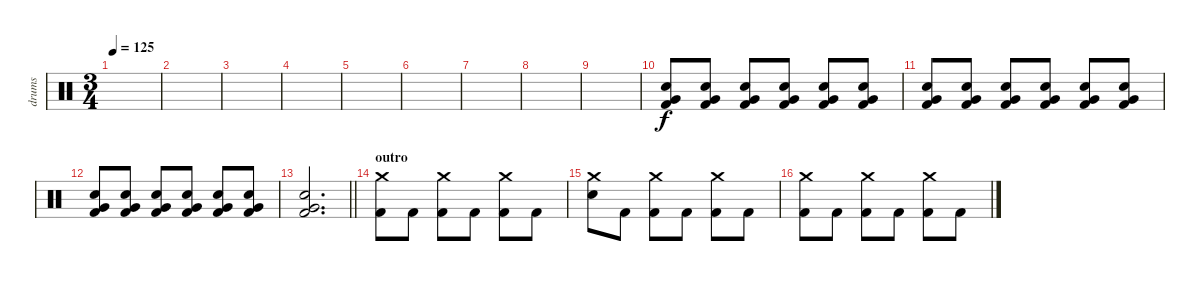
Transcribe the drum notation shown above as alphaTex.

\track ("drums" "drums") {instrument percussion}
\staff {score}
\articulation defaults
\ts (3 4)
\tempo 125
\clef neutral
\ks c
|
|
|
|
|
|
|
|
|
("Very Low Tom (hit)" "Electric Snare (hit)" "Kick (hit) 2").8{volume 5} ("Very Low Tom (hit)" "Electric Snare (hit)" "Kick (hit) 2").8{volume 16} ("Very Low Tom (hit)" "Electric Snare (hit)" "Kick (hit) 2").8 ("Very Low Tom (hit)" "Electric Snare (hit)" "Kick (hit) 2").8 ("Very Low Tom (hit)" "Electric Snare (hit)" "Kick (hit) 2").8 ("Very Low Tom (hit)" "Electric Snare (hit)" "Kick (hit) 2").8 |
("Very Low Tom (hit)" "Electric Snare (hit)" "Kick (hit) 2").8 ("Very Low Tom (hit)" "Electric Snare (hit)" "Kick (hit) 2").8 ("Very Low Tom (hit)" "Electric Snare (hit)" "Kick (hit) 2").8 ("Very Low Tom (hit)" "Electric Snare (hit)" "Kick (hit) 2").8 ("Very Low Tom (hit)" "Electric Snare (hit)" "Kick (hit) 2").8 ("Very Low Tom (hit)" "Electric Snare (hit)" "Kick (hit) 2").8 |
("Very Low Tom (hit)" "Electric Snare (hit)" "Kick (hit) 2").8 ("Very Low Tom (hit)" "Electric Snare (hit)" "Kick (hit) 2").8 ("Very Low Tom (hit)" "Electric Snare (hit)" "Kick (hit) 2").8 ("Very Low Tom (hit)" "Electric Snare (hit)" "Kick (hit) 2").8 ("Very Low Tom (hit)" "Electric Snare (hit)" "Kick (hit) 2").8 ("Very Low Tom (hit)" "Electric Snare (hit)" "Kick (hit) 2").8 |
\barLineRight lightlight
("Very Low Tom (hit)" "Electric Snare (hit)" "Kick (hit) 2").2{d} |
\section ("" "outro")
("Crash medium (hit)" "Kick (hit) 2").8 "Kick (hit) 2".8 ("Crash medium (hit)" "Kick (hit) 2").8 "Kick (hit) 2".8 ("Crash medium (hit)" "Kick (hit) 2").8 "Kick (hit) 2".8 |
("Crash medium (hit)" "Electric Snare (hit)").8 "Kick (hit) 2".8 ("Crash medium (hit)" "Kick (hit) 2").8 "Kick (hit) 2".8 ("Crash medium (hit)" "Kick (hit) 2").8 "Kick (hit) 2".8 |
("Crash medium (hit)" "Kick (hit) 2").8 "Kick (hit) 2".8 ("Crash medium (hit)" "Kick (hit) 2").8 "Kick (hit) 2".8 ("Crash medium (hit)" "Kick (hit) 2").8 "Kick (hit) 2".8
